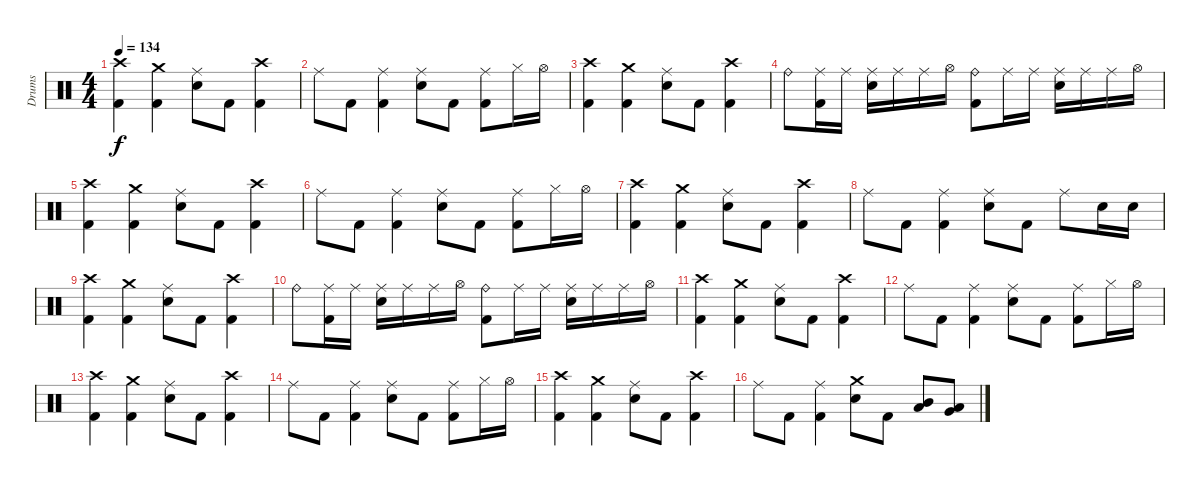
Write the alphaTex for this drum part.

\track ("Drums" "Drums") {instrument percussion}
\staff {score}
\articulation defaults
\ts (4 4)
\tempo 134
\clef neutral
\ks c
("Crash high (hit)" "Kick (hit) 2").4{dy f} ("Crash medium (hit)" "Kick (hit) 2").4 ("Ride (middle)" "Snare (hit) 2").8 "Kick (hit) 2".8 ("Crash high (hit)" "Kick (hit) 2").4 |
"Ride (middle)".8 "Kick (hit) 2".8 ("Ride (middle)" "Kick (hit) 2").4 ("Ride (middle)" "Snare (hit) 2").8 "Kick (hit) 2".8 ("Ride (middle)" "Kick (hit) 2").8 "Hi-Hat (closed)".16 "Hi-Hat (open)".16 |
("Crash high (hit)" "Kick (hit) 2").4 ("Crash medium (hit)" "Kick (hit) 2").4 ("Ride (middle)" "Snare (hit) 2").8 "Kick (hit) 2".8 ("Crash high (hit)" "Kick (hit) 2").4 |
"Ride (bell)".8 ("Ride (middle)" "Kick (hit) 2").16 "Ride (middle)".16 ("Ride (middle)" "Snare (hit) 2").16 "Ride (middle)".16 "Ride (middle)".16 "Hi-Hat (open)".16 ("Ride (bell)" "Kick (hit) 2").8 "Ride (middle)".16 "Ride (middle)".16 ("Ride (middle)" "Snare (hit) 2").16 "Ride (middle)".16 "Ride (middle)".16 "Hi-Hat (open)".16 |
("Crash high (hit)" "Kick (hit) 2").4 ("Crash medium (hit)" "Kick (hit) 2").4 ("Ride (middle)" "Snare (hit) 2").8 "Kick (hit) 2".8 ("Crash high (hit)" "Kick (hit) 2").4 |
"Ride (middle)".8 "Kick (hit) 2".8 ("Ride (middle)" "Kick (hit) 2").4 ("Ride (middle)" "Snare (hit) 2").8 "Kick (hit) 2".8 ("Ride (middle)" "Kick (hit) 2").8 "Hi-Hat (closed)".16 "Hi-Hat (open)".16 |
("Crash high (hit)" "Kick (hit) 2").4 ("Crash medium (hit)" "Kick (hit) 2").4 ("Ride (middle)" "Snare (hit) 2").8 "Kick (hit) 2".8 ("Crash high (hit)" "Kick (hit) 2").4 |
"Ride (middle)".8 "Kick (hit) 2".8 ("Ride (middle)" "Kick (hit) 2").4 ("Ride (middle)" "Snare (hit) 2").8 "Kick (hit) 2".8 "Ride (middle)".8 "Snare (hit) 2".16 "Snare (hit) 2".16 |
("Crash high (hit)" "Kick (hit) 2").4 ("Crash medium (hit)" "Kick (hit) 2").4 ("Ride (middle)" "Snare (hit) 2").8 "Kick (hit) 2".8 ("Crash high (hit)" "Kick (hit) 2").4 |
"Ride (bell)".8 ("Ride (middle)" "Kick (hit) 2").16 "Ride (middle)".16 ("Ride (middle)" "Snare (hit) 2").16 "Ride (middle)".16 "Ride (middle)".16 "Hi-Hat (open)".16 ("Ride (bell)" "Kick (hit) 2").8 "Ride (middle)".16 "Ride (middle)".16 ("Ride (middle)" "Snare (hit) 2").16 "Ride (middle)".16 "Ride (middle)".16 "Hi-Hat (open)".16 |
("Crash high (hit)" "Kick (hit) 2").4 ("Crash medium (hit)" "Kick (hit) 2").4 ("Ride (middle)" "Snare (hit) 2").8 "Kick (hit) 2".8 ("Crash high (hit)" "Kick (hit) 2").4 |
"Ride (middle)".8 "Kick (hit) 2".8 ("Ride (middle)" "Kick (hit) 2").4 ("Ride (middle)" "Snare (hit) 2").8 "Kick (hit) 2".8 ("Ride (middle)" "Kick (hit) 2").8 "Hi-Hat (closed)".16 "Hi-Hat (open)".16 |
("Crash high (hit)" "Kick (hit) 2").4 ("Crash medium (hit)" "Kick (hit) 2").4 ("Ride (middle)" "Snare (hit) 2").8 "Kick (hit) 2".8 ("Crash high (hit)" "Kick (hit) 2").4 |
"Ride (middle)".8 "Kick (hit) 2".8 ("Ride (middle)" "Kick (hit) 2").4 ("Ride (middle)" "Snare (hit) 2").8 "Kick (hit) 2".8 ("Ride (middle)" "Kick (hit) 2").8 "Hi-Hat (closed)".16 "Hi-Hat (open)".16 |
("Crash high (hit)" "Kick (hit) 2").4 ("Crash medium (hit)" "Kick (hit) 2").4 ("Ride (middle)" "Snare (hit) 2").8 "Kick (hit) 2".8 ("Crash high (hit)" "Kick (hit) 2").4 |
"Ride (middle)".8 "Kick (hit) 2".8 ("Ride (middle)" "Kick (hit) 2").4 ("Crash medium (hit)" "Snare (hit) 2").8 "Kick (hit) 2".8 ("Mid Tom (hit)" "Low Tom (hit)").8 ("Low Tom (hit)" "Very Low Tom (hit)").8
